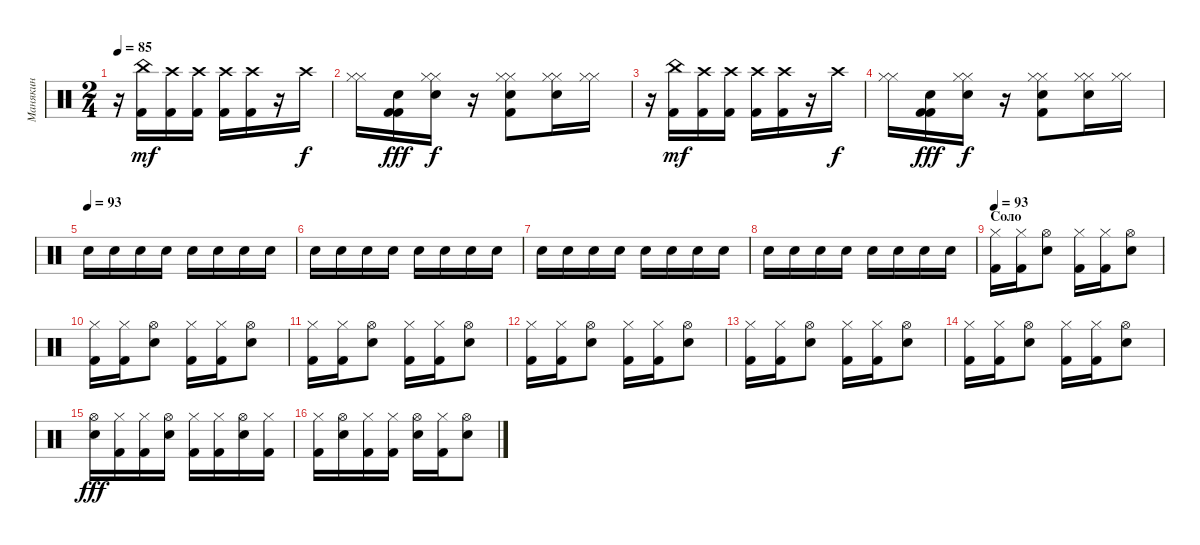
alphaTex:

\track ("Манякин" "Манякин") {instrument percussion}
\staff {score}
\articulation defaults
\ts (2 4)
\tempo 85
\clef neutral
\ks c
r.16{dy f} ("Kick (hit) 2" "China (hit)").16{dy mf} ("Kick (hit) 2" "Crash high (hit)").16 ("Kick (hit) 2" "Crash high (hit)").16 ("Kick (hit) 2" "Crash high (hit)").16 ("Kick (hit) 2" "Crash high (hit)").16 r.16 "Crash high (hit)".16{dy f} |
("Hi-Hat (closed)" "Hi-Hat (closed)").16 ("Snare (hit) 2" "Kick (hit) 2" "Kick (hit) 2").16{dy fff} ("Snare (hit) 2" "Hi-Hat (closed)" "Hi-Hat (closed)").16{dy f} r.16 ("Snare (hit) 2" "Kick (hit) 2" "Hi-Hat (closed)" "Hi-Hat (closed)").8 ("Snare (hit) 2" "Hi-Hat (closed)" "Hi-Hat (closed)").16 ("Hi-Hat (closed)" "Hi-Hat (closed)").16 |
r.16 ("Kick (hit) 2" "China (hit)").16{dy mf} ("Kick (hit) 2" "Crash high (hit)").16 ("Kick (hit) 2" "Crash high (hit)").16 ("Kick (hit) 2" "Crash high (hit)").16 ("Kick (hit) 2" "Crash high (hit)").16 r.16 "Crash high (hit)".16{dy f} |
("Hi-Hat (closed)" "Hi-Hat (closed)").16 ("Snare (hit) 2" "Kick (hit) 2" "Kick (hit) 2").16{dy fff} ("Snare (hit) 2" "Hi-Hat (closed)" "Hi-Hat (closed)").16{dy f} r.16 ("Snare (hit) 2" "Kick (hit) 2" "Hi-Hat (closed)" "Hi-Hat (closed)").8 ("Snare (hit) 2" "Hi-Hat (closed)" "Hi-Hat (closed)").16 ("Hi-Hat (closed)" "Hi-Hat (closed)").16 |
\tempo (93)
"Snare (hit) 2".16 "Snare (hit) 2".16 "Snare (hit) 2".16 "Snare (hit) 2".16 "Snare (hit) 2".16 "Snare (hit) 2".16 "Snare (hit) 2".16 "Snare (hit) 2".16 |
"Snare (hit) 2".16 "Snare (hit) 2".16 "Snare (hit) 2".16 "Snare (hit) 2".16 "Snare (hit) 2".16 "Snare (hit) 2".16 "Snare (hit) 2".16 "Snare (hit) 2".16 |
"Snare (hit) 2".16 "Snare (hit) 2".16 "Snare (hit) 2".16 "Snare (hit) 2".16 "Snare (hit) 2".16 "Snare (hit) 2".16 "Snare (hit) 2".16 "Snare (hit) 2".16 |
"Snare (hit) 2".16 "Snare (hit) 2".16 "Snare (hit) 2".16 "Snare (hit) 2".16 "Snare (hit) 2".16 "Snare (hit) 2".16 "Snare (hit) 2".16 "Snare (hit) 2".16 |
\section ("" "Соло")
\tempo 93
("Kick (hit) 2" "Hi-Hat (closed)").16{volume 13} ("Kick (hit) 2" "Hi-Hat (closed)").16 ("Snare (hit) 2" "Hi-Hat (open)").8 ("Kick (hit) 2" "Hi-Hat (closed)").16 ("Kick (hit) 2" "Hi-Hat (closed)").16 ("Snare (hit) 2" "Hi-Hat (open)").8 |
("Kick (hit) 2" "Hi-Hat (closed)").16 ("Kick (hit) 2" "Hi-Hat (closed)").16 ("Snare (hit) 2" "Hi-Hat (open)").8 ("Kick (hit) 2" "Hi-Hat (closed)").16 ("Kick (hit) 2" "Hi-Hat (closed)").16 ("Snare (hit) 2" "Hi-Hat (open)").8 |
("Kick (hit) 2" "Hi-Hat (closed)").16 ("Kick (hit) 2" "Hi-Hat (closed)").16 ("Snare (hit) 2" "Hi-Hat (open)").8 ("Kick (hit) 2" "Hi-Hat (closed)").16 ("Kick (hit) 2" "Hi-Hat (closed)").16 ("Snare (hit) 2" "Hi-Hat (open)").8 |
("Kick (hit) 2" "Hi-Hat (closed)").16 ("Kick (hit) 2" "Hi-Hat (closed)").16 ("Snare (hit) 2" "Hi-Hat (open)").8 ("Kick (hit) 2" "Hi-Hat (closed)").16 ("Kick (hit) 2" "Hi-Hat (closed)").16 ("Snare (hit) 2" "Hi-Hat (open)").8 |
("Kick (hit) 2" "Hi-Hat (closed)").16 ("Kick (hit) 2" "Hi-Hat (closed)").16 ("Snare (hit) 2" "Hi-Hat (open)").8 ("Kick (hit) 2" "Hi-Hat (closed)").16 ("Kick (hit) 2" "Hi-Hat (closed)").16 ("Snare (hit) 2" "Hi-Hat (open)").8 |
("Kick (hit) 2" "Hi-Hat (closed)").16 ("Kick (hit) 2" "Hi-Hat (closed)").16 ("Snare (hit) 2" "Hi-Hat (open)").8 ("Kick (hit) 2" "Hi-Hat (closed)").16 ("Kick (hit) 2" "Hi-Hat (closed)").16 ("Snare (hit) 2" "Hi-Hat (open)").8 |
("Snare (hit) 2" "Hi-Hat (open)").16{dy fff} ("Kick (hit) 2" "Hi-Hat (closed)").16 ("Kick (hit) 2" "Hi-Hat (closed)").16 ("Snare (hit) 2" "Hi-Hat (open)").16 ("Kick (hit) 2" "Hi-Hat (closed)").16 ("Kick (hit) 2" "Hi-Hat (closed)").16 ("Snare (hit) 2" "Hi-Hat (open)").16 ("Kick (hit) 2" "Hi-Hat (closed)").16 |
("Kick (hit) 2" "Hi-Hat (closed)").16 ("Snare (hit) 2" "Hi-Hat (open)").16 ("Kick (hit) 2" "Hi-Hat (closed)").16 ("Kick (hit) 2" "Hi-Hat (closed)").16 ("Snare (hit) 2" "Hi-Hat (open)").16 ("Kick (hit) 2" "Hi-Hat (closed)").16 ("Snare (hit) 2" "Hi-Hat (open)").8
